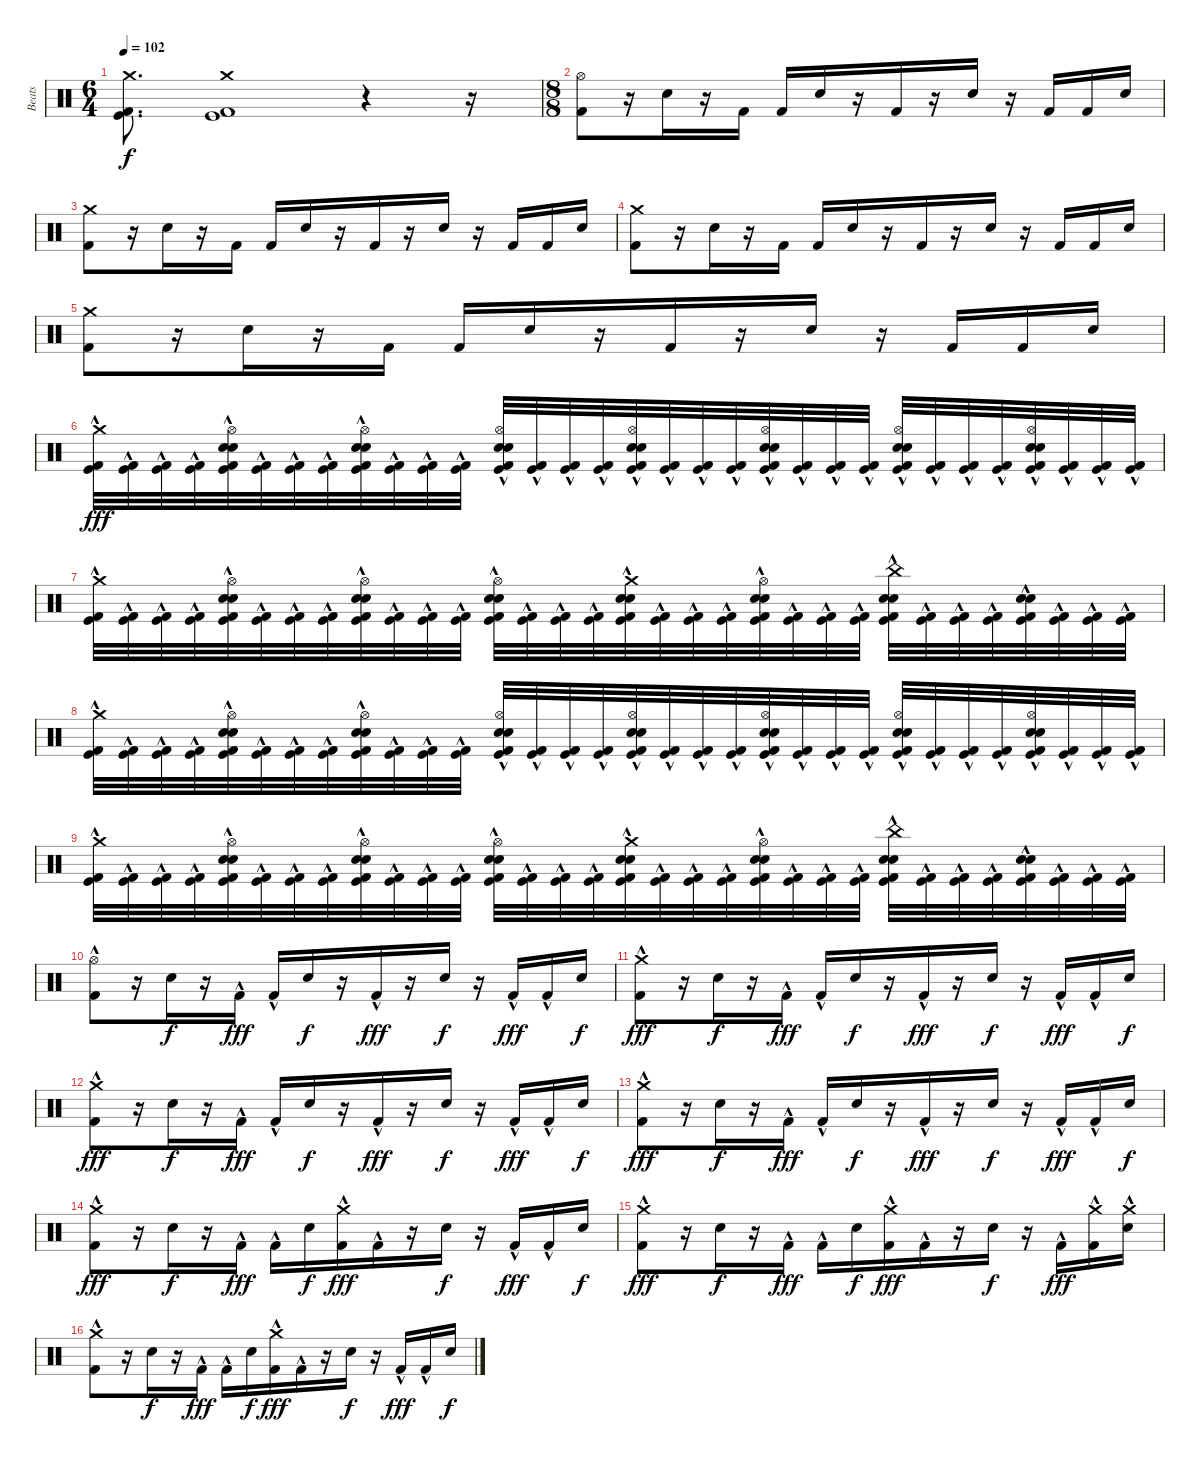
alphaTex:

\track ("Beats" "Beats") {instrument percussion}
\staff {score}
\articulation defaults
\ts (6 4)
\tempo 102
\clef neutral
\ks c
("Crash medium (hit)" "Kick (hit)" "Kick (hit) 2").8{d dy f} ("Kick (hit) 2" "Kick (hit)" "Crash medium (hit)").1 r.4 r.16 |
\ts (8 8)
("Hi-Hat (open)" "Kick (hit) 2").8 r.16 "Snare (hit) 2".16 r.16 "Kick (hit) 2".16 "Kick (hit) 2".16 "Snare (hit) 2".16 r.16 "Kick (hit) 2".16 r.16 "Snare (hit) 2".16 r.16 "Kick (hit) 2".16 "Kick (hit) 2".16 "Snare (hit) 2".16 |
("Crash medium (hit)" "Kick (hit) 2").8 r.16 "Snare (hit) 2".16 r.16 "Kick (hit) 2".16 "Kick (hit) 2".16 "Snare (hit) 2".16 r.16 "Kick (hit) 2".16 r.16 "Snare (hit) 2".16 r.16 "Kick (hit) 2".16 "Kick (hit) 2".16 "Snare (hit) 2".16 |
("Crash medium (hit)" "Kick (hit) 2").8 r.16 "Snare (hit) 2".16 r.16 "Kick (hit) 2".16 "Kick (hit) 2".16 "Snare (hit) 2".16 r.16 "Kick (hit) 2".16 r.16 "Snare (hit) 2".16 r.16 "Kick (hit) 2".16 "Kick (hit) 2".16 "Snare (hit) 2".16 |
("Crash medium (hit)" "Kick (hit) 2").8 r.16 "Snare (hit) 2".16 r.16 "Kick (hit) 2".16 "Kick (hit) 2".16 "Snare (hit) 2".16 r.16 "Kick (hit) 2".16 r.16 "Snare (hit) 2".16 r.16 "Kick (hit) 2".16 "Kick (hit) 2".16 "Snare (hit) 2".16 |
("Crash medium (hit)"{hac} "Kick (hit)"{hac} "Kick (hit) 2"{hac}).32{dy fff} ("Kick (hit)"{hac} "Kick (hit) 2"{hac}).32 ("Kick (hit)"{hac} "Kick (hit) 2"{hac}).32 ("Kick (hit)"{hac} "Kick (hit) 2"{hac}).32 ("Hi-Hat (open)" "Electric Snare (hit)" "Snare (hit) 2" "Kick (hit)"{hac} "Kick (hit) 2"{hac}).32 ("Kick (hit)"{hac} "Kick (hit) 2"{hac}).32 ("Kick (hit)"{hac} "Kick (hit) 2"{hac}).32 ("Kick (hit)"{hac} "Kick (hit) 2"{hac}).32 ("Hi-Hat (open)" "Electric Snare (hit)" "Snare (hit) 2" "Kick (hit)"{hac} "Kick (hit) 2"{hac}).32 ("Kick (hit)"{hac} "Kick (hit) 2"{hac}).32 ("Kick (hit)"{hac} "Kick (hit) 2"{hac}).32 ("Kick (hit)"{hac} "Kick (hit) 2"{hac}).32 ("Hi-Hat (open)" "Electric Snare (hit)" "Snare (hit) 2" "Kick (hit)"{hac} "Kick (hit) 2"{hac}).32 ("Kick (hit)"{hac} "Kick (hit) 2"{hac}).32 ("Kick (hit)"{hac} "Kick (hit) 2"{hac}).32 ("Kick (hit)"{hac} "Kick (hit) 2"{hac}).32 ("Hi-Hat (open)" "Electric Snare (hit)" "Snare (hit) 2" "Kick (hit)"{hac} "Kick (hit) 2"{hac}).32 ("Kick (hit)"{hac} "Kick (hit) 2"{hac}).32 ("Kick (hit)"{hac} "Kick (hit) 2"{hac}).32 ("Kick (hit)"{hac} "Kick (hit) 2"{hac}).32 ("Hi-Hat (open)" "Electric Snare (hit)" "Snare (hit) 2" "Kick (hit)"{hac} "Kick (hit) 2"{hac}).32 ("Kick (hit)"{hac} "Kick (hit) 2"{hac}).32 ("Kick (hit)"{hac} "Kick (hit) 2"{hac}).32 ("Kick (hit)"{hac} "Kick (hit) 2"{hac}).32 ("Hi-Hat (open)" "Electric Snare (hit)" "Snare (hit) 2" "Kick (hit)"{hac} "Kick (hit) 2"{hac}).32 ("Kick (hit)"{hac} "Kick (hit) 2"{hac}).32 ("Kick (hit)"{hac} "Kick (hit) 2"{hac}).32 ("Kick (hit)"{hac} "Kick (hit) 2"{hac}).32 ("Hi-Hat (open)" "Electric Snare (hit)" "Snare (hit) 2" "Kick (hit)"{hac} "Kick (hit) 2"{hac}).32 ("Kick (hit)"{hac} "Kick (hit) 2"{hac}).32 ("Kick (hit)"{hac} "Kick (hit) 2"{hac}).32 ("Kick (hit)"{hac} "Kick (hit) 2"{hac}).32 |
("Crash medium (hit)"{hac} "Kick (hit)"{hac} "Kick (hit) 2"{hac}).32 ("Kick (hit)"{hac} "Kick (hit) 2"{hac}).32 ("Kick (hit)"{hac} "Kick (hit) 2"{hac}).32 ("Kick (hit)"{hac} "Kick (hit) 2"{hac}).32 ("Hi-Hat (open)" "Electric Snare (hit)" "Snare (hit) 2" "Kick (hit)"{hac} "Kick (hit) 2"{hac}).32 ("Kick (hit)"{hac} "Kick (hit) 2"{hac}).32 ("Kick (hit)"{hac} "Kick (hit) 2"{hac}).32 ("Kick (hit)"{hac} "Kick (hit) 2"{hac}).32 ("Hi-Hat (open)" "Electric Snare (hit)" "Snare (hit) 2" "Kick (hit)"{hac} "Kick (hit) 2"{hac}).32 ("Kick (hit)"{hac} "Kick (hit) 2"{hac}).32 ("Kick (hit)"{hac} "Kick (hit) 2"{hac}).32 ("Kick (hit)"{hac} "Kick (hit) 2"{hac}).32 ("Hi-Hat (open)" "Electric Snare (hit)" "Snare (hit) 2" "Kick (hit)"{hac} "Kick (hit) 2"{hac}).32 ("Kick (hit)"{hac} "Kick (hit) 2"{hac}).32 ("Kick (hit)"{hac} "Kick (hit) 2"{hac}).32 ("Kick (hit)"{hac} "Kick (hit) 2"{hac}).32 ("Crash medium (hit)"{hac} "Electric Snare (hit)" "Snare (hit) 2" "Kick (hit)"{hac} "Kick (hit) 2"{hac}).32 ("Kick (hit)"{hac} "Kick (hit) 2"{hac}).32 ("Kick (hit)"{hac} "Kick (hit) 2"{hac}).32 ("Kick (hit)"{hac} "Kick (hit) 2"{hac}).32 ("Hi-Hat (open)" "Electric Snare (hit)" "Snare (hit) 2" "Kick (hit)"{hac} "Kick (hit) 2"{hac}).32 ("Kick (hit)"{hac} "Kick (hit) 2"{hac}).32 ("Kick (hit)"{hac} "Kick (hit) 2"{hac}).32 ("Kick (hit)"{hac} "Kick (hit) 2"{hac}).32 ("China (hit)"{hac} "Electric Snare (hit)" "Snare (hit) 2" "Kick (hit)"{hac} "Kick (hit) 2"{hac}).32 ("Kick (hit)"{hac} "Kick (hit) 2"{hac}).32 ("Kick (hit)"{hac} "Kick (hit) 2"{hac}).32 ("Kick (hit)"{hac} "Kick (hit) 2"{hac}).32 ("Electric Snare (hit)" "Snare (hit) 2" "Kick (hit)"{hac} "Kick (hit) 2"{hac}).32 ("Kick (hit)"{hac} "Kick (hit) 2"{hac}).32 ("Kick (hit)"{hac} "Kick (hit) 2"{hac}).32 ("Kick (hit)"{hac} "Kick (hit) 2"{hac}).32 |
("Crash medium (hit)" "Kick (hit)"{hac} "Kick (hit) 2"{hac}).32 ("Kick (hit)"{hac} "Kick (hit) 2"{hac}).32 ("Kick (hit)"{hac} "Kick (hit) 2"{hac}).32 ("Kick (hit)"{hac} "Kick (hit) 2"{hac}).32 ("Hi-Hat (open)" "Electric Snare (hit)" "Snare (hit) 2" "Kick (hit)"{hac} "Kick (hit) 2"{hac}).32 ("Kick (hit)"{hac} "Kick (hit) 2"{hac}).32 ("Kick (hit)"{hac} "Kick (hit) 2"{hac}).32 ("Kick (hit)"{hac} "Kick (hit) 2"{hac}).32 ("Hi-Hat (open)" "Electric Snare (hit)" "Snare (hit) 2" "Kick (hit)"{hac} "Kick (hit) 2"{hac}).32 ("Kick (hit)"{hac} "Kick (hit) 2"{hac}).32 ("Kick (hit)"{hac} "Kick (hit) 2"{hac}).32 ("Kick (hit)"{hac} "Kick (hit) 2"{hac}).32 ("Hi-Hat (open)" "Electric Snare (hit)" "Snare (hit) 2" "Kick (hit)"{hac} "Kick (hit) 2"{hac}).32 ("Kick (hit)"{hac} "Kick (hit) 2"{hac}).32 ("Kick (hit)"{hac} "Kick (hit) 2"{hac}).32 ("Kick (hit)"{hac} "Kick (hit) 2"{hac}).32 ("Hi-Hat (open)" "Electric Snare (hit)" "Snare (hit) 2" "Kick (hit)"{hac} "Kick (hit) 2"{hac}).32 ("Kick (hit)"{hac} "Kick (hit) 2"{hac}).32 ("Kick (hit)"{hac} "Kick (hit) 2"{hac}).32 ("Kick (hit)"{hac} "Kick (hit) 2"{hac}).32 ("Hi-Hat (open)" "Electric Snare (hit)" "Snare (hit) 2" "Kick (hit)"{hac} "Kick (hit) 2"{hac}).32 ("Kick (hit)"{hac} "Kick (hit) 2"{hac}).32 ("Kick (hit)"{hac} "Kick (hit) 2"{hac}).32 ("Kick (hit)"{hac} "Kick (hit) 2"{hac}).32 ("Hi-Hat (open)" "Electric Snare (hit)" "Snare (hit) 2" "Kick (hit)"{hac} "Kick (hit) 2"{hac}).32 ("Kick (hit)"{hac} "Kick (hit) 2"{hac}).32 ("Kick (hit)"{hac} "Kick (hit) 2"{hac}).32 ("Kick (hit)"{hac} "Kick (hit) 2"{hac}).32 ("Hi-Hat (open)" "Electric Snare (hit)" "Snare (hit) 2" "Kick (hit)"{hac} "Kick (hit) 2"{hac}).32 ("Kick (hit)"{hac} "Kick (hit) 2"{hac}).32 ("Kick (hit)"{hac} "Kick (hit) 2"{hac}).32 ("Kick (hit)"{hac} "Kick (hit) 2"{hac}).32 |
("Crash medium (hit)"{hac} "Kick (hit)"{hac} "Kick (hit) 2"{hac}).32 ("Kick (hit)"{hac} "Kick (hit) 2"{hac}).32 ("Kick (hit)"{hac} "Kick (hit) 2"{hac}).32 ("Kick (hit)"{hac} "Kick (hit) 2"{hac}).32 ("Hi-Hat (open)" "Electric Snare (hit)" "Snare (hit) 2" "Kick (hit)"{hac} "Kick (hit) 2"{hac}).32 ("Kick (hit)"{hac} "Kick (hit) 2"{hac}).32 ("Kick (hit)"{hac} "Kick (hit) 2"{hac}).32 ("Kick (hit)"{hac} "Kick (hit) 2"{hac}).32 ("Hi-Hat (open)" "Electric Snare (hit)" "Snare (hit) 2" "Kick (hit)"{hac} "Kick (hit) 2"{hac}).32 ("Kick (hit)"{hac} "Kick (hit) 2"{hac}).32 ("Kick (hit)"{hac} "Kick (hit) 2"{hac}).32 ("Kick (hit)"{hac} "Kick (hit) 2"{hac}).32 ("Hi-Hat (open)" "Electric Snare (hit)" "Snare (hit) 2" "Kick (hit)"{hac} "Kick (hit) 2"{hac}).32 ("Kick (hit)"{hac} "Kick (hit) 2"{hac}).32 ("Kick (hit)"{hac} "Kick (hit) 2"{hac}).32 ("Kick (hit)"{hac} "Kick (hit) 2"{hac}).32 ("Crash medium (hit)"{hac} "Electric Snare (hit)" "Snare (hit) 2" "Kick (hit)"{hac} "Kick (hit) 2"{hac}).32 ("Kick (hit)"{hac} "Kick (hit) 2"{hac}).32 ("Kick (hit)"{hac} "Kick (hit) 2"{hac}).32 ("Kick (hit)"{hac} "Kick (hit) 2"{hac}).32 ("Hi-Hat (open)" "Electric Snare (hit)" "Snare (hit) 2" "Kick (hit)"{hac} "Kick (hit) 2"{hac}).32 ("Kick (hit)"{hac} "Kick (hit) 2"{hac}).32 ("Kick (hit)"{hac} "Kick (hit) 2"{hac}).32 ("Kick (hit)"{hac} "Kick (hit) 2"{hac}).32 ("China (hit)"{hac} "Electric Snare (hit)" "Snare (hit) 2" "Kick (hit)"{hac} "Kick (hit) 2"{hac}).32 ("Kick (hit)"{hac} "Kick (hit) 2"{hac}).32 ("Kick (hit)"{hac} "Kick (hit) 2"{hac}).32 ("Kick (hit)"{hac} "Kick (hit) 2"{hac}).32 ("Electric Snare (hit)" "Snare (hit) 2" "Kick (hit)"{hac} "Kick (hit) 2"{hac}).32 ("Kick (hit)"{hac} "Kick (hit) 2"{hac}).32 ("Kick (hit)"{hac} "Kick (hit) 2"{hac}).32 ("Kick (hit)"{hac} "Kick (hit) 2"{hac}).32 |
("Hi-Hat (open)" "Kick (hit) 2"{hac}).8 r.16 "Snare (hit) 2".16{dy f} r.16 "Kick (hit) 2"{hac}.16{dy fff} "Kick (hit) 2"{hac}.16 "Snare (hit) 2".16{dy f} r.16 "Kick (hit) 2"{hac}.16{dy fff} r.16 "Snare (hit) 2".16{dy f} r.16 "Kick (hit) 2"{hac}.16{dy fff} "Kick (hit) 2"{hac}.16 "Snare (hit) 2".16{dy f} |
("Crash medium (hit)" "Kick (hit) 2"{hac}).8{dy fff} r.16 "Snare (hit) 2".16{dy f} r.16 "Kick (hit) 2"{hac}.16{dy fff} "Kick (hit) 2"{hac}.16 "Snare (hit) 2".16{dy f} r.16 "Kick (hit) 2"{hac}.16{dy fff} r.16 "Snare (hit) 2".16{dy f} r.16 "Kick (hit) 2"{hac}.16{dy fff} "Kick (hit) 2"{hac}.16 "Snare (hit) 2".16{dy f} |
("Crash medium (hit)" "Kick (hit) 2"{hac}).8{dy fff} r.16 "Snare (hit) 2".16{dy f} r.16 "Kick (hit) 2"{hac}.16{dy fff} "Kick (hit) 2"{hac}.16 "Snare (hit) 2".16{dy f} r.16 "Kick (hit) 2"{hac}.16{dy fff} r.16 "Snare (hit) 2".16{dy f} r.16 "Kick (hit) 2"{hac}.16{dy fff} "Kick (hit) 2"{hac}.16 "Snare (hit) 2".16{dy f} |
("Crash medium (hit)" "Kick (hit) 2"{hac}).8{dy fff} r.16 "Snare (hit) 2".16{dy f} r.16 "Kick (hit) 2"{hac}.16{dy fff} "Kick (hit) 2"{hac}.16 "Snare (hit) 2".16{dy f} r.16 "Kick (hit) 2"{hac}.16{dy fff} r.16 "Snare (hit) 2".16{dy f} r.16 "Kick (hit) 2"{hac}.16{dy fff} "Kick (hit) 2"{hac}.16 "Snare (hit) 2".16{dy f} |
("Crash medium (hit)" "Kick (hit) 2"{hac}).8{dy fff} r.16 "Snare (hit) 2".16{dy f} r.16 "Kick (hit) 2"{hac}.16{dy fff} "Kick (hit) 2"{hac}.16 "Snare (hit) 2".16{dy f} ("Crash medium (hit)"{hac} "Kick (hit) 2"{hac}).16{dy fff} "Kick (hit) 2"{hac}.16 r.16 "Snare (hit) 2".16{dy f} r.16 "Kick (hit) 2"{hac}.16{dy fff} "Kick (hit) 2"{hac}.16 "Snare (hit) 2".16{dy f} |
("Crash medium (hit)" "Kick (hit) 2"{hac}).8{dy fff} r.16 "Snare (hit) 2".16{dy f} r.16 "Kick (hit) 2"{hac}.16{dy fff} "Kick (hit) 2"{hac}.16 "Snare (hit) 2".16{dy f} ("Crash medium (hit)"{hac} "Kick (hit) 2"{hac}).16{dy fff} "Kick (hit) 2"{hac}.16 r.16 "Snare (hit) 2".16{dy f} r.16 "Kick (hit) 2"{hac}.16{dy fff} ("Crash medium (hit)"{hac} "Kick (hit) 2"{hac}).16 ("Crash medium (hit)"{hac} "Snare (hit) 2"{hac}).16 |
("Crash medium (hit)" "Kick (hit) 2"{hac}).8 r.16 "Snare (hit) 2".16{dy f} r.16 "Kick (hit) 2"{hac}.16{dy fff} "Kick (hit) 2"{hac}.16 "Snare (hit) 2".16{dy f} ("Crash medium (hit)"{hac} "Kick (hit) 2"{hac}).16{dy fff} "Kick (hit) 2"{hac}.16 r.16 "Snare (hit) 2".16{dy f} r.16 "Kick (hit) 2"{hac}.16{dy fff} "Kick (hit) 2"{hac}.16 "Snare (hit) 2".16{dy f}
